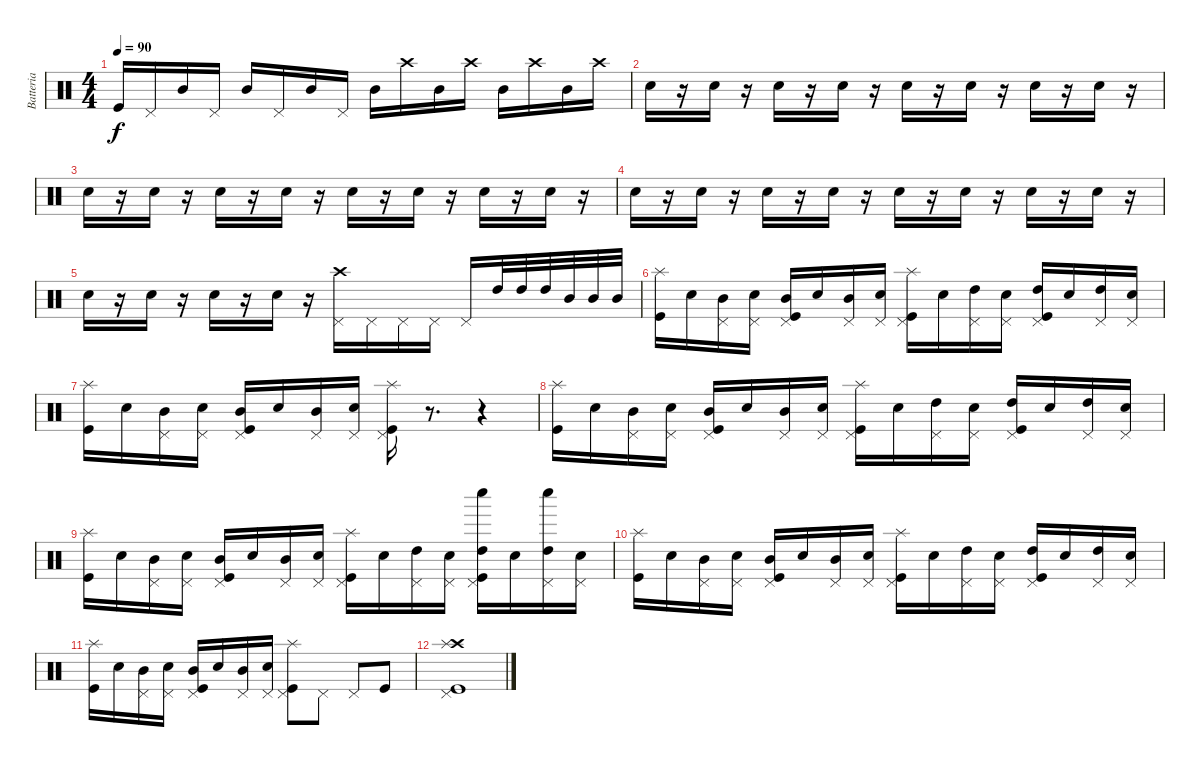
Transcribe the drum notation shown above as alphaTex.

\track ("Batteria" "Batteria") {instrument percussion}
\staff {score}
\articulation defaults
\ts (4 4)
\tempo 90
\clef neutral
\ks c "Kick (hit)".16{dy f} "Pedal Hi-Hat (hit)".16 "Mid Tom (hit)".16 "Pedal Hi-Hat (hit)".16 "Mid Tom (hit)".16 "Pedal Hi-Hat (hit)".16 "Mid Tom (hit)".16 "Pedal Hi-Hat (hit)".16 "Mid Tom (hit)".16 "Crash high (hit)".16 "Mid Tom (hit)".16 "Crash high (hit)".16 "Mid Tom (hit)".16 "Crash high (hit)".16 "Mid Tom (hit)".16 "Crash high (hit)".16
|
"Snare (hit) 2".16 r.16 "Snare (hit) 2".16 r.16 "Snare (hit) 2".16 r.16 "Snare (hit) 2".16 r.16 "Snare (hit) 2".16 r.16 "Snare (hit) 2".16 r.16 "Snare (hit) 2".16 r.16 "Snare (hit) 2".16 r.16 |
"Snare (hit) 2".16 r.16 "Snare (hit) 2".16 r.16 "Snare (hit) 2".16 r.16 "Snare (hit) 2".16 r.16 "Snare (hit) 2".16 r.16 "Snare (hit) 2".16 r.16 "Snare (hit) 2".16 r.16 "Snare (hit) 2".16 r.16 |
"Snare (hit) 2".16 r.16 "Snare (hit) 2".16 r.16 "Snare (hit) 2".16 r.16 "Snare (hit) 2".16 r.16 "Snare (hit) 2".16 r.16 "Snare (hit) 2".16 r.16 "Snare (hit) 2".16 r.16 "Snare (hit) 2".16 r.16 |
"Snare (hit) 2".16 r.16 "Snare (hit) 2".16 r.16 "Snare (hit) 2".16 r.16 "Snare (hit) 2".16 r.16 ("Crash high (hit)" "Pedal Hi-Hat (hit)").16 "Pedal Hi-Hat (hit)".16 "Pedal Hi-Hat (hit)".16 "Pedal Hi-Hat (hit)".16 "Pedal Hi-Hat (hit)".16 "High Tom (hit)".32 "High Tom (hit)".32 "High Tom (hit)".32 "Mid Tom (hit)".32 "Mid Tom (hit)".32 "Mid Tom (hit)".32 |
("Splash (hit)" "Kick (hit)").16 "Snare (hit) 2".16 ("Mid Tom (hit)" "Pedal Hi-Hat (hit)").16 ("Snare (hit) 2" "Pedal Hi-Hat (hit)").16 ("Mid Tom (hit)" "Pedal Hi-Hat (hit)" "Kick (hit)").16 "Snare (hit) 2".16 ("Mid Tom (hit)" "Pedal Hi-Hat (hit)").16 ("Snare (hit) 2" "Pedal Hi-Hat (hit)").16 ("Splash (hit)" "Pedal Hi-Hat (hit)" "Kick (hit)").16 "Snare (hit) 2".16 ("High Tom (hit)" "Pedal Hi-Hat (hit)").16 ("Snare (hit) 2" "Pedal Hi-Hat (hit)").16 ("High Tom (hit)" "Pedal Hi-Hat (hit)" "Kick (hit)").16 "Snare (hit) 2".16 ("High Tom (hit)" "Pedal Hi-Hat (hit)").16 ("Snare (hit) 2" "Pedal Hi-Hat (hit)").16 |
("Splash (hit)" "Kick (hit)").16 "Snare (hit) 2".16 ("Mid Tom (hit)" "Pedal Hi-Hat (hit)").16 ("Snare (hit) 2" "Pedal Hi-Hat (hit)").16 ("Mid Tom (hit)" "Pedal Hi-Hat (hit)" "Kick (hit)").16 "Snare (hit) 2".16 ("Mid Tom (hit)" "Pedal Hi-Hat (hit)").16 ("Snare (hit) 2" "Pedal Hi-Hat (hit)").16 ("Splash (hit)" "Pedal Hi-Hat (hit)" "Kick (hit)").16 r.8{d} r.4 |
("Splash (hit)" "Kick (hit)").16 "Snare (hit) 2".16 ("Mid Tom (hit)" "Pedal Hi-Hat (hit)").16 ("Snare (hit) 2" "Pedal Hi-Hat (hit)").16 ("Mid Tom (hit)" "Pedal Hi-Hat (hit)" "Kick (hit)").16 "Snare (hit) 2".16 ("Mid Tom (hit)" "Pedal Hi-Hat (hit)").16 ("Snare (hit) 2" "Pedal Hi-Hat (hit)").16 ("Splash (hit)" "Pedal Hi-Hat (hit)" "Kick (hit)").16 "Snare (hit) 2".16 ("High Tom (hit)" "Pedal Hi-Hat (hit)").16 ("Snare (hit) 2" "Pedal Hi-Hat (hit)").16 ("High Tom (hit)" "Pedal Hi-Hat (hit)" "Kick (hit)").16 "Snare (hit) 2".16 ("High Tom (hit)" "Pedal Hi-Hat (hit)").16 ("Snare (hit) 2" "Pedal Hi-Hat (hit)").16 |
("Splash (hit)" "Kick (hit)").16 "Snare (hit) 2".16 ("Mid Tom (hit)" "Pedal Hi-Hat (hit)").16 ("Snare (hit) 2" "Pedal Hi-Hat (hit)").16 ("Mid Tom (hit)" "Pedal Hi-Hat (hit)" "Kick (hit)").16 "Snare (hit) 2".16 ("Mid Tom (hit)" "Pedal Hi-Hat (hit)").16 ("Snare (hit) 2" "Pedal Hi-Hat (hit)").16 ("Splash (hit)" "Pedal Hi-Hat (hit)" "Kick (hit)").16 "Snare (hit) 2".16 ("High Tom (hit)" "Pedal Hi-Hat (hit)").16 ("Snare (hit) 2" "Pedal Hi-Hat (hit)").16 ("Whistle low (hit)" "High Tom (hit)" "Pedal Hi-Hat (hit)" "Kick (hit)").16 "Snare (hit) 2".16 ("Whistle low (hit)" "High Tom (hit)" "Pedal Hi-Hat (hit)").16 ("Snare (hit) 2" "Pedal Hi-Hat (hit)").16 |
("Splash (hit)" "Kick (hit)").16 "Snare (hit) 2".16 ("Mid Tom (hit)" "Pedal Hi-Hat (hit)").16 ("Snare (hit) 2" "Pedal Hi-Hat (hit)").16 ("Mid Tom (hit)" "Pedal Hi-Hat (hit)" "Kick (hit)").16 "Snare (hit) 2".16 ("Mid Tom (hit)" "Pedal Hi-Hat (hit)").16 ("Snare (hit) 2" "Pedal Hi-Hat (hit)").16 ("Splash (hit)" "Pedal Hi-Hat (hit)" "Kick (hit)").16 "Snare (hit) 2".16 ("High Tom (hit)" "Pedal Hi-Hat (hit)").16 ("Snare (hit) 2" "Pedal Hi-Hat (hit)").16 ("High Tom (hit)" "Pedal Hi-Hat (hit)" "Kick (hit)").16 "Snare (hit) 2".16 ("High Tom (hit)" "Pedal Hi-Hat (hit)").16 ("Snare (hit) 2" "Pedal Hi-Hat (hit)").16 |
("Splash (hit)" "Kick (hit)").16 "Snare (hit) 2".16 ("Mid Tom (hit)" "Pedal Hi-Hat (hit)").16 ("Snare (hit) 2" "Pedal Hi-Hat (hit)").16 ("Mid Tom (hit)" "Pedal Hi-Hat (hit)" "Kick (hit)").16 "Snare (hit) 2".16 ("Mid Tom (hit)" "Pedal Hi-Hat (hit)").16 ("Snare (hit) 2" "Pedal Hi-Hat (hit)").16 ("Splash (hit)" "Pedal Hi-Hat (hit)" "Kick (hit)").8 "Pedal Hi-Hat (hit)".8 "Pedal Hi-Hat (hit)".8 "Kick (hit)".8 |
("Crash high (hit)" "Splash (hit)" "Pedal Hi-Hat (hit)" "Kick (hit)").1
